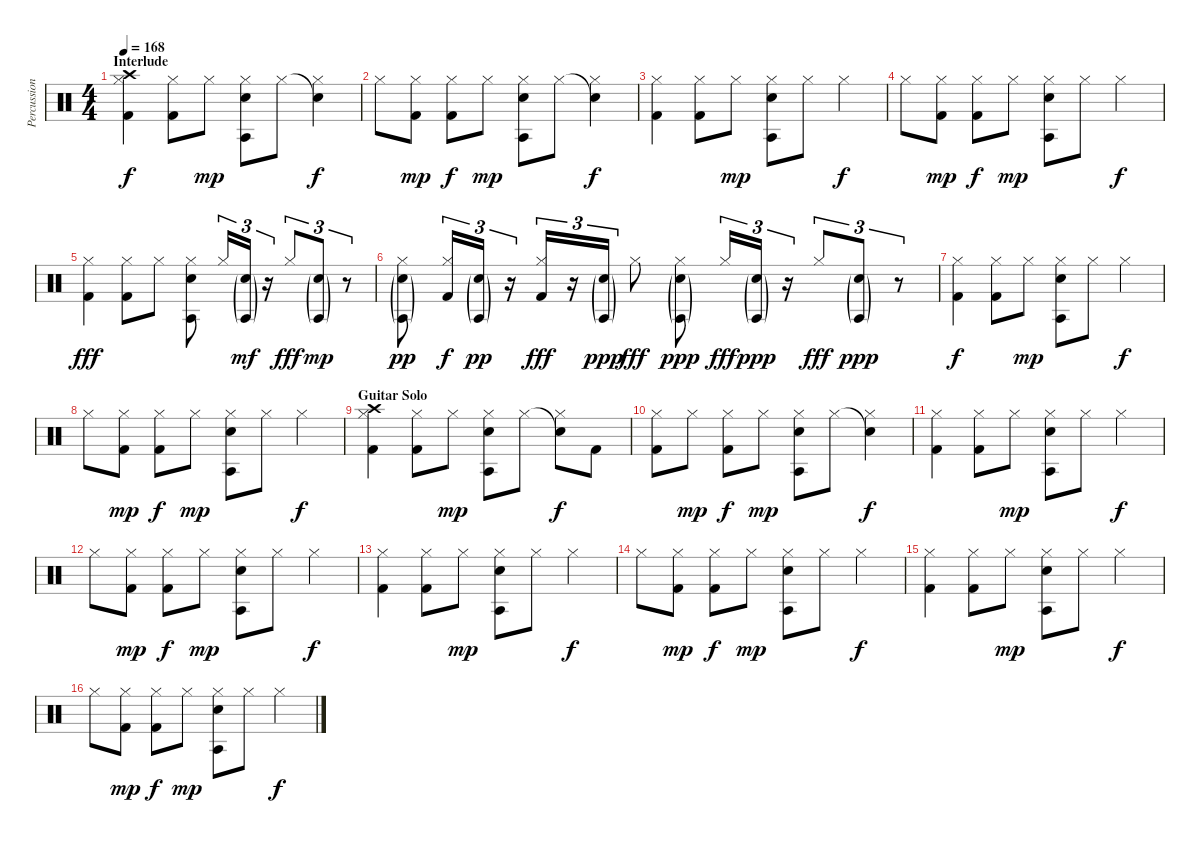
\track ("Percussion" "Percussion") {instrument percussion}
\staff {score}
\articulation defaults
\ts (4 4)
\section ("" "Interlude")
\tempo 168
\clef neutral
\ks c
("Crash high (hit)" "Hi-Hat (closed)" "Kick (hit) 2").4{dy f} ("Hi-Hat (closed)" "Kick (hit) 2").8 "Hi-Hat (closed)".8{dy mp} ("Hi-Hat (closed)" "Agogo tow (hit)" "Electric Snare (hit)").8 "Hi-Hat (closed)".8 ("Snare (hit)"{t} "Hi-Hat (closed)").4{dy f} |
"Hi-Hat (closed)".8 ("Hi-Hat (closed)" "Kick (hit) 2").8{dy mp} ("Hi-Hat (closed)" "Kick (hit) 2").8{dy f} "Hi-Hat (closed)".8{dy mp} ("Hi-Hat (closed)" "Agogo tow (hit)" "Electric Snare (hit)").8 "Hi-Hat (closed)".8 ("Snare (hit)"{t} "Hi-Hat (closed)").4{dy f} |
("Hi-Hat (closed)" "Kick (hit) 2").4 ("Hi-Hat (closed)" "Kick (hit) 2").8 "Hi-Hat (closed)".8{dy mp} ("Hi-Hat (closed)" "Agogo tow (hit)" "Electric Snare (hit)").8 "Hi-Hat (closed)".8 "Hi-Hat (closed)".4{dy f} |
"Hi-Hat (closed)".8 ("Hi-Hat (closed)" "Kick (hit) 2").8{dy mp} ("Hi-Hat (closed)" "Kick (hit) 2").8{dy f} "Hi-Hat (closed)".8{dy mp} ("Hi-Hat (closed)" "Agogo tow (hit)" "Electric Snare (hit)").8 "Hi-Hat (closed)".8 "Hi-Hat (closed)".4{dy f} |
("Hi-Hat (closed)" "Kick (hit) 2").4{dy fff volume 10} ("Hi-Hat (closed)" "Kick (hit) 2").8 "Hi-Hat (closed)".8 ("Hi-Hat (closed)" "Agogo tow (hit)" "Electric Snare (hit)").8 "Hi-Hat (closed)".16{tu (3 2)} ("Agogo tow (hit)"{g} "Electric Snare (hit)"{g}).16{tu (3 2) dy mf} r.16{tu (3 2)} "Hi-Hat (closed)".8{tu (3 2) dy fff} ("Agogo tow (hit)"{g} "Electric Snare (hit)"{g}).8{tu (3 2) dy mp} r.8{tu (3 2)} |
("Hi-Hat (closed)" "Agogo tow (hit)"{g} "Electric Snare (hit)"{g}).8{dy pp} ("Hi-Hat (closed)" "Kick (hit) 2").16{tu (3 2) dy f} ("Agogo tow (hit)"{g} "Electric Snare (hit)"{g}).16{tu (3 2) dy pp} r.16{tu (3 2)} ("Hi-Hat (closed)" "Kick (hit) 2").16{tu (3 2) dy fff} r.16{tu (3 2)} ("Agogo tow (hit)"{g} "Electric Snare (hit)"{g}).16{tu (3 2) dy ppp} "Hi-Hat (closed)".8{dy fff} ("Hi-Hat (closed)" "Agogo tow (hit)"{g} "Electric Snare (hit)"{g}).8{dy ppp} "Hi-Hat (closed)".16{tu (3 2) dy fff} ("Agogo tow (hit)"{g} "Electric Snare (hit)"{g}).16{tu (3 2) dy ppp volume 8} r.16{tu (3 2)} "Hi-Hat (closed)".8{tu (3 2) dy fff} ("Agogo tow (hit)"{g} "Electric Snare (hit)"{g}).8{tu (3 2) dy ppp volume 8} r.8{tu (3 2)} |
("Hi-Hat (closed)" "Kick (hit) 2").4{dy f volume 13} ("Hi-Hat (closed)" "Kick (hit) 2").8 "Hi-Hat (closed)".8{dy mp} ("Hi-Hat (closed)" "Agogo tow (hit)" "Electric Snare (hit)").8 "Hi-Hat (closed)".8 "Hi-Hat (closed)".4{dy f} |
"Hi-Hat (closed)".8 ("Hi-Hat (closed)" "Kick (hit) 2").8{dy mp} ("Hi-Hat (closed)" "Kick (hit) 2").8{dy f} "Hi-Hat (closed)".8{dy mp} ("Hi-Hat (closed)" "Agogo tow (hit)" "Electric Snare (hit)").8 "Hi-Hat (closed)".8 "Hi-Hat (closed)".4{dy f} |
\section ("" "Guitar Solo")
("Crash high (hit)" "Hi-Hat (closed)" "Kick (hit) 2").4 ("Hi-Hat (closed)" "Kick (hit) 2").8 "Hi-Hat (closed)".8{dy mp} ("Hi-Hat (closed)" "Agogo tow (hit)" "Electric Snare (hit)").8 "Hi-Hat (closed)".8 ("Snare (hit)"{t} "Hi-Hat (closed)").8{dy f} "Kick (hit) 2".8 |
("Hi-Hat (closed)" "Kick (hit) 2").8 "Hi-Hat (closed)".8{dy mp} ("Hi-Hat (closed)" "Kick (hit) 2").8{dy f} "Hi-Hat (closed)".8{dy mp} ("Hi-Hat (closed)" "Agogo tow (hit)" "Electric Snare (hit)").8 "Hi-Hat (closed)".8 ("Snare (hit)"{t} "Hi-Hat (closed)").4{dy f} |
("Hi-Hat (closed)" "Kick (hit) 2").4 ("Hi-Hat (closed)" "Kick (hit) 2").8 "Hi-Hat (closed)".8{dy mp} ("Hi-Hat (closed)" "Agogo tow (hit)" "Electric Snare (hit)").8 "Hi-Hat (closed)".8 "Hi-Hat (closed)".4{dy f} |
"Hi-Hat (closed)".8 ("Hi-Hat (closed)" "Kick (hit) 2").8{dy mp} ("Hi-Hat (closed)" "Kick (hit) 2").8{dy f} "Hi-Hat (closed)".8{dy mp} ("Hi-Hat (closed)" "Agogo tow (hit)" "Electric Snare (hit)").8 "Hi-Hat (closed)".8 "Hi-Hat (closed)".4{dy f} |
("Hi-Hat (closed)" "Kick (hit) 2").4 ("Hi-Hat (closed)" "Kick (hit) 2").8 "Hi-Hat (closed)".8{dy mp} ("Hi-Hat (closed)" "Agogo tow (hit)" "Electric Snare (hit)").8 "Hi-Hat (closed)".8 "Hi-Hat (closed)".4{dy f} |
"Hi-Hat (closed)".8 ("Hi-Hat (closed)" "Kick (hit) 2").8{dy mp} ("Hi-Hat (closed)" "Kick (hit) 2").8{dy f} "Hi-Hat (closed)".8{dy mp} ("Hi-Hat (closed)" "Agogo tow (hit)" "Electric Snare (hit)").8 "Hi-Hat (closed)".8 "Hi-Hat (closed)".4{dy f} |
("Hi-Hat (closed)" "Kick (hit) 2").4 ("Hi-Hat (closed)" "Kick (hit) 2").8 "Hi-Hat (closed)".8{dy mp} ("Hi-Hat (closed)" "Agogo tow (hit)" "Electric Snare (hit)").8 "Hi-Hat (closed)".8 "Hi-Hat (closed)".4{dy f} |
"Hi-Hat (closed)".8 ("Hi-Hat (closed)" "Kick (hit) 2").8{dy mp} ("Hi-Hat (closed)" "Kick (hit) 2").8{dy f} "Hi-Hat (closed)".8{dy mp} ("Hi-Hat (closed)" "Agogo tow (hit)" "Electric Snare (hit)").8 "Hi-Hat (closed)".8 "Hi-Hat (closed)".4{dy f}
